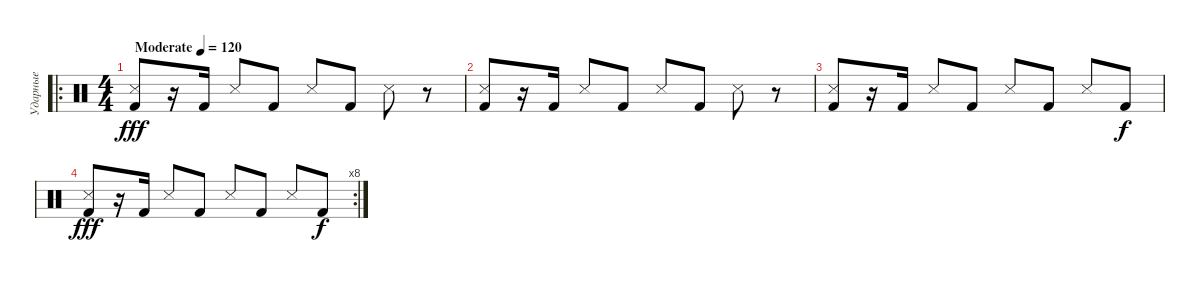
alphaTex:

\track ("Ударные" "Ударные") {instrument percussion}
\staff {score}
\articulation defaults
\ro
\ts (4 4)
\tempo (120 "Moderate")
\clef neutral
\ks c
("Snare (side stick) 3" "Kick (hit) 2").8{dy fff} r.16 "Kick (hit) 2".16 "Snare (side stick) 3".8 "Kick (hit) 2".8 "Snare (side stick) 3".8 "Kick (hit) 2".8 "Snare (side stick) 3".8 r.8 |
("Snare (side stick) 3" "Kick (hit) 2").8 r.16 "Kick (hit) 2".16 "Snare (side stick) 3".8 "Kick (hit) 2".8 "Snare (side stick) 3".8 "Kick (hit) 2".8 "Snare (side stick) 3".8 r.8 |
("Snare (side stick) 3" "Kick (hit) 2").8 r.16 "Kick (hit) 2".16 "Snare (side stick) 3".8 "Kick (hit) 2".8 "Snare (side stick) 3".8 "Kick (hit) 2".8 "Snare (side stick) 3".8 "Kick (hit) 2".8{dy f} |
\rc 8
("Snare (side stick) 3" "Kick (hit) 2").8{dy fff} r.16 "Kick (hit) 2".16 "Snare (side stick) 3".8 "Kick (hit) 2".8 "Snare (side stick) 3".8 "Kick (hit) 2".8 "Snare (side stick) 3".8 "Kick (hit) 2".8{dy f}
